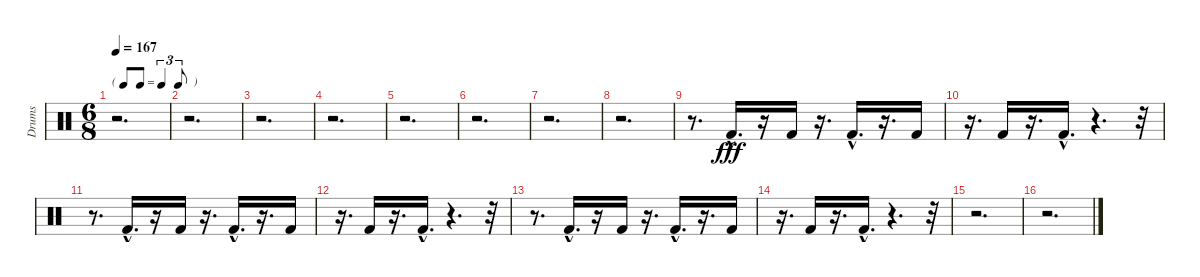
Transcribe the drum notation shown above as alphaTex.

\track ("Drums" "Drums") {instrument percussion}
\staff {score}
\articulation defaults
\ts (6 8)
\tf triplet8th
\tempo 167
\clef neutral
\ks c
r.2{d dy fff} |
r.2{d} |
r.2{d} |
r.2{d} |
r.2{d} |
r.2{d} |
r.2{d} |
r.2{d} |
r.8{d} "Kick (hit) 2"{hac}.16{d} r.16 "Kick (hit) 2".16 r.16{d} "Kick (hit) 2"{hac}.16{d} r.16{d} "Kick (hit) 2".16 |
r.16{d} "Kick (hit) 2".16 r.16{d} "Kick (hit) 2"{hac}.16{d} r.4{d} r.32 |
r.8{d} "Kick (hit) 2"{hac}.16{d} r.16 "Kick (hit) 2".16 r.16{d} "Kick (hit) 2"{hac}.16{d} r.16{d} "Kick (hit) 2".16 |
r.16{d} "Kick (hit) 2".16 r.16{d} "Kick (hit) 2"{hac}.16{d} r.4{d} r.32 |
r.8{d} "Kick (hit) 2"{hac}.16{d} r.16 "Kick (hit) 2".16 r.16{d} "Kick (hit) 2"{hac}.16{d} r.16{d} "Kick (hit) 2".16 |
r.16{d} "Kick (hit) 2".16 r.16{d} "Kick (hit) 2"{hac}.16{d} r.4{d} r.32 |
r.2{d} |
r.2{d}
